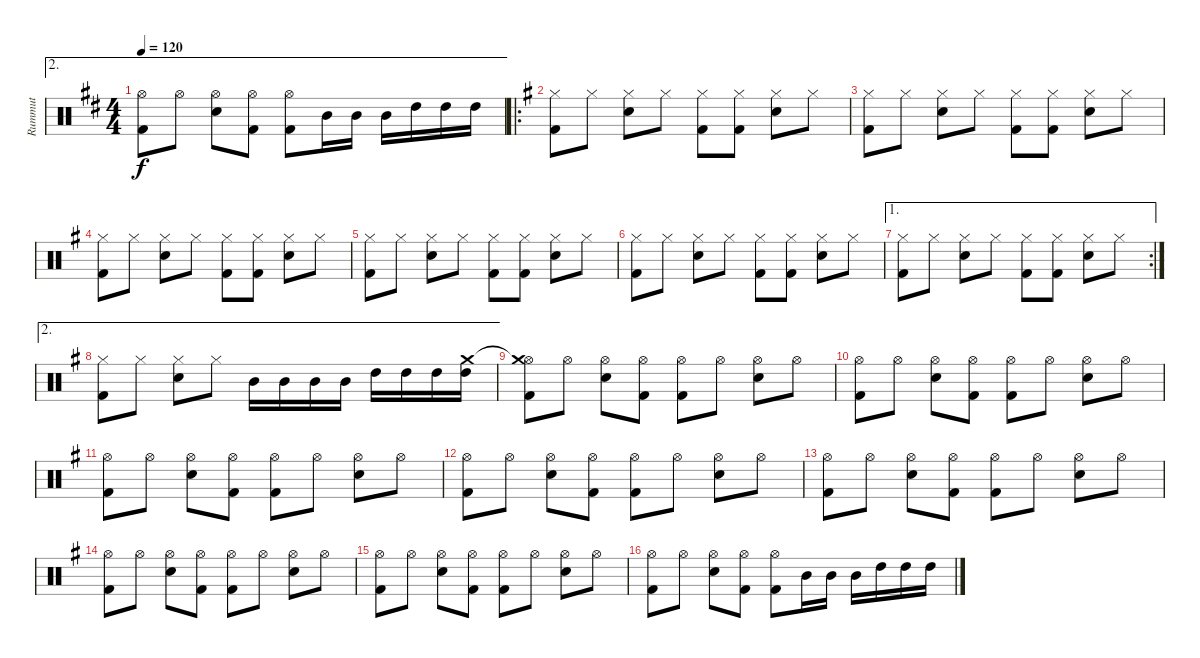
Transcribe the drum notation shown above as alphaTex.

\track ("Rummut" "Rummut") {instrument percussion}
\staff {score}
\articulation defaults
\ae 2
\ts (4 4)
\tempo 120
\clef neutral
\ks d
("Hi-Hat (open)" "Kick (hit) 2").8{dy f} "Hi-Hat (open)".8 ("Hi-Hat (open)" "Electric Snare (hit)").8 ("Hi-Hat (open)" "Kick (hit) 2").8 ("Hi-Hat (open)" "Kick (hit) 2").8 "Mid Tom (hit)".16 "Mid Tom (hit)".16 "Mid Tom (hit)".16 "High Tom (hit)".16 "High Tom (hit)".16 "High Tom (hit)".16 |
\ro
\ks g
("Kick (hit) 2" "Hi-Hat (closed)").8 "Hi-Hat (closed)".8 ("Snare (hit) 2" "Hi-Hat (closed)").8 "Hi-Hat (closed)".8 ("Kick (hit) 2" "Hi-Hat (closed)").8 ("Kick (hit) 2" "Hi-Hat (closed)").8 ("Snare (hit) 2" "Hi-Hat (closed)").8 "Hi-Hat (closed)".8 |
("Kick (hit) 2" "Hi-Hat (closed)").8 "Hi-Hat (closed)".8 ("Snare (hit) 2" "Hi-Hat (closed)").8 "Hi-Hat (closed)".8 ("Kick (hit) 2" "Hi-Hat (closed)").8 ("Kick (hit) 2" "Hi-Hat (closed)").8 ("Snare (hit) 2" "Hi-Hat (closed)").8 "Hi-Hat (closed)".8 |
("Kick (hit) 2" "Hi-Hat (closed)").8 "Hi-Hat (closed)".8 ("Snare (hit) 2" "Hi-Hat (closed)").8 "Hi-Hat (closed)".8 ("Kick (hit) 2" "Hi-Hat (closed)").8 ("Kick (hit) 2" "Hi-Hat (closed)").8 ("Snare (hit) 2" "Hi-Hat (closed)").8 "Hi-Hat (closed)".8 |
("Kick (hit) 2" "Hi-Hat (closed)").8 "Hi-Hat (closed)".8 ("Snare (hit) 2" "Hi-Hat (closed)").8 "Hi-Hat (closed)".8 ("Kick (hit) 2" "Hi-Hat (closed)").8 ("Kick (hit) 2" "Hi-Hat (closed)").8 ("Snare (hit) 2" "Hi-Hat (closed)").8 "Hi-Hat (closed)".8 |
("Kick (hit) 2" "Hi-Hat (closed)").8 "Hi-Hat (closed)".8 ("Snare (hit) 2" "Hi-Hat (closed)").8 "Hi-Hat (closed)".8 ("Kick (hit) 2" "Hi-Hat (closed)").8 ("Kick (hit) 2" "Hi-Hat (closed)").8 ("Snare (hit) 2" "Hi-Hat (closed)").8 "Hi-Hat (closed)".8 |
\ae 1
\rc 2
("Kick (hit) 2" "Hi-Hat (closed)").8 "Hi-Hat (closed)".8 ("Snare (hit) 2" "Hi-Hat (closed)").8 "Hi-Hat (closed)".8 ("Kick (hit) 2" "Hi-Hat (closed)").8 ("Kick (hit) 2" "Hi-Hat (closed)").8 ("Snare (hit) 2" "Hi-Hat (closed)").8 "Hi-Hat (closed)".8 |
\ae 2
("Kick (hit) 2" "Hi-Hat (closed)").8 "Hi-Hat (closed)".8 ("Snare (hit) 2" "Hi-Hat (closed)").8 "Hi-Hat (closed)".8 "Mid Tom (hit)".16 "Mid Tom (hit)".16 "Mid Tom (hit)".16 "Mid Tom (hit)".16 "High Tom (hit)".16 "High Tom (hit)".16 "High Tom (hit)".16 ("High Tom (hit)" "Crash medium (hit)").16 |
("Hi-Hat (open)" "Crash medium (hit)"{t} "Kick (hit) 2").8 "Hi-Hat (open)".8 ("Hi-Hat (open)" "Electric Snare (hit)").8 ("Hi-Hat (open)" "Kick (hit) 2").8 ("Hi-Hat (open)" "Kick (hit) 2").8 "Hi-Hat (open)".8 ("Hi-Hat (open)" "Electric Snare (hit)").8 "Hi-Hat (open)".8 |
("Hi-Hat (open)" "Kick (hit) 2").8 "Hi-Hat (open)".8 ("Hi-Hat (open)" "Electric Snare (hit)").8 ("Hi-Hat (open)" "Kick (hit) 2").8 ("Hi-Hat (open)" "Kick (hit) 2").8 "Hi-Hat (open)".8 ("Hi-Hat (open)" "Electric Snare (hit)").8 "Hi-Hat (open)".8 |
("Hi-Hat (open)" "Kick (hit) 2").8 "Hi-Hat (open)".8 ("Hi-Hat (open)" "Electric Snare (hit)").8 ("Hi-Hat (open)" "Kick (hit) 2").8 ("Hi-Hat (open)" "Kick (hit) 2").8 "Hi-Hat (open)".8 ("Hi-Hat (open)" "Electric Snare (hit)").8 "Hi-Hat (open)".8 |
("Hi-Hat (open)" "Kick (hit) 2").8 "Hi-Hat (open)".8 ("Hi-Hat (open)" "Electric Snare (hit)").8 ("Hi-Hat (open)" "Kick (hit) 2").8 ("Hi-Hat (open)" "Kick (hit) 2").8 "Hi-Hat (open)".8 ("Hi-Hat (open)" "Electric Snare (hit)").8 "Hi-Hat (open)".8 |
("Hi-Hat (open)" "Kick (hit) 2").8 "Hi-Hat (open)".8 ("Hi-Hat (open)" "Electric Snare (hit)").8 ("Hi-Hat (open)" "Kick (hit) 2").8 ("Hi-Hat (open)" "Kick (hit) 2").8 "Hi-Hat (open)".8 ("Hi-Hat (open)" "Electric Snare (hit)").8 "Hi-Hat (open)".8 |
("Hi-Hat (open)" "Kick (hit) 2").8 "Hi-Hat (open)".8 ("Hi-Hat (open)" "Electric Snare (hit)").8 ("Hi-Hat (open)" "Kick (hit) 2").8 ("Hi-Hat (open)" "Kick (hit) 2").8 "Hi-Hat (open)".8 ("Hi-Hat (open)" "Electric Snare (hit)").8 "Hi-Hat (open)".8 |
("Hi-Hat (open)" "Kick (hit) 2").8 "Hi-Hat (open)".8 ("Hi-Hat (open)" "Electric Snare (hit)").8 ("Hi-Hat (open)" "Kick (hit) 2").8 ("Hi-Hat (open)" "Kick (hit) 2").8 "Hi-Hat (open)".8 ("Hi-Hat (open)" "Electric Snare (hit)").8 "Hi-Hat (open)".8 |
("Hi-Hat (open)" "Kick (hit) 2").8 "Hi-Hat (open)".8 ("Hi-Hat (open)" "Electric Snare (hit)").8 ("Hi-Hat (open)" "Kick (hit) 2").8 ("Hi-Hat (open)" "Kick (hit) 2").8 "Mid Tom (hit)".16 "Mid Tom (hit)".16 "Mid Tom (hit)".16 "High Tom (hit)".16 "High Tom (hit)".16 "High Tom (hit)".16
